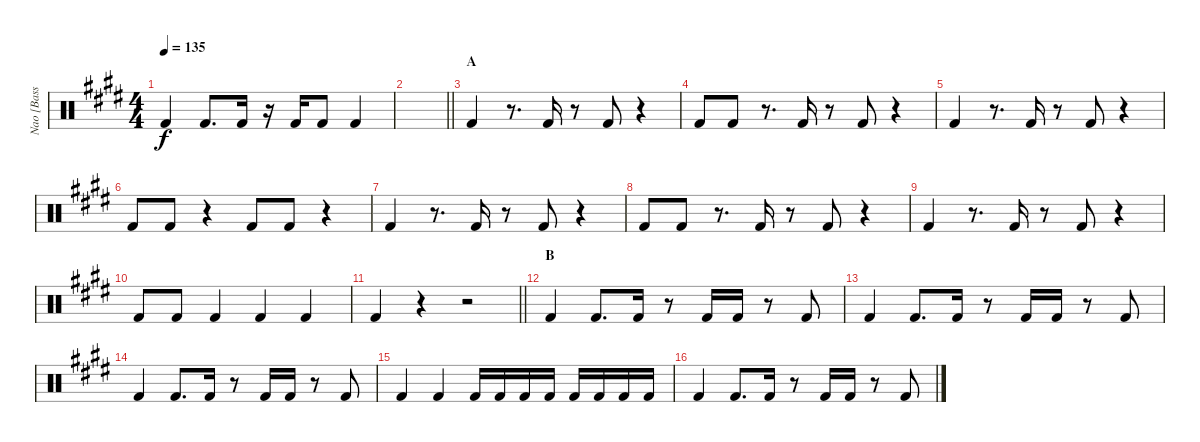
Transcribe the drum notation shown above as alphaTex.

\track ("Nao [Bass Drum]" "Nao [Bass ") {instrument percussion}
\staff {score}
\articulation defaults
\ts (4 4)
\tempo 135
\clef neutral
\ks e "Kick (hit) 2".4{dy f} "Kick (hit) 2".8{d} "Kick (hit) 2".16
r.16 "Kick (hit) 2".16 "Kick (hit) 2".8 "Kick (hit) 2".4 |
\barLineRight lightlight
|
\section ("" "A")
"Kick (hit) 2".4 r.8{d} "Kick (hit) 2".16 r.8 "Kick (hit) 2".8 r.4 |
"Kick (hit) 2".8 "Kick (hit) 2".8 r.8{d} "Kick (hit) 2".16 r.8 "Kick (hit) 2".8 r.4 |
"Kick (hit) 2".4 r.8{d} "Kick (hit) 2".16 r.8 "Kick (hit) 2".8 r.4 |
"Kick (hit) 2".8 "Kick (hit) 2".8 r.4 "Kick (hit) 2".8 "Kick (hit) 2".8 r.4 |
"Kick (hit) 2".4 r.8{d} "Kick (hit) 2".16 r.8 "Kick (hit) 2".8 r.4 |
"Kick (hit) 2".8 "Kick (hit) 2".8 r.8{d} "Kick (hit) 2".16 r.8 "Kick (hit) 2".8 r.4 |
"Kick (hit) 2".4 r.8{d} "Kick (hit) 2".16 r.8 "Kick (hit) 2".8 r.4 |
"Kick (hit) 2".8 "Kick (hit) 2".8 "Kick (hit) 2".4 "Kick (hit) 2".4 "Kick (hit) 2".4 |
\barLineRight lightlight "Kick (hit) 2".4
r.4 r.2 |
\section ("" "B")
"Kick (hit) 2".4 "Kick (hit) 2".8{d} "Kick (hit) 2".16 r.8 "Kick (hit) 2".16 "Kick (hit) 2".16 r.8 "Kick (hit) 2".8 |
"Kick (hit) 2".4 "Kick (hit) 2".8{d} "Kick (hit) 2".16 r.8 "Kick (hit) 2".16 "Kick (hit) 2".16 r.8 "Kick (hit) 2".8 |
"Kick (hit) 2".4 "Kick (hit) 2".8{d} "Kick (hit) 2".16 r.8 "Kick (hit) 2".16 "Kick (hit) 2".16 r.8 "Kick (hit) 2".8 |
"Kick (hit) 2".4 "Kick (hit) 2".4 "Kick (hit) 2".16 "Kick (hit) 2".16 "Kick (hit) 2".16 "Kick (hit) 2".16 "Kick (hit) 2".16 "Kick (hit) 2".16 "Kick (hit) 2".16 "Kick (hit) 2".16 |
"Kick (hit) 2".4 "Kick (hit) 2".8{d} "Kick (hit) 2".16 r.8 "Kick (hit) 2".16 "Kick (hit) 2".16 r.8 "Kick (hit) 2".8
